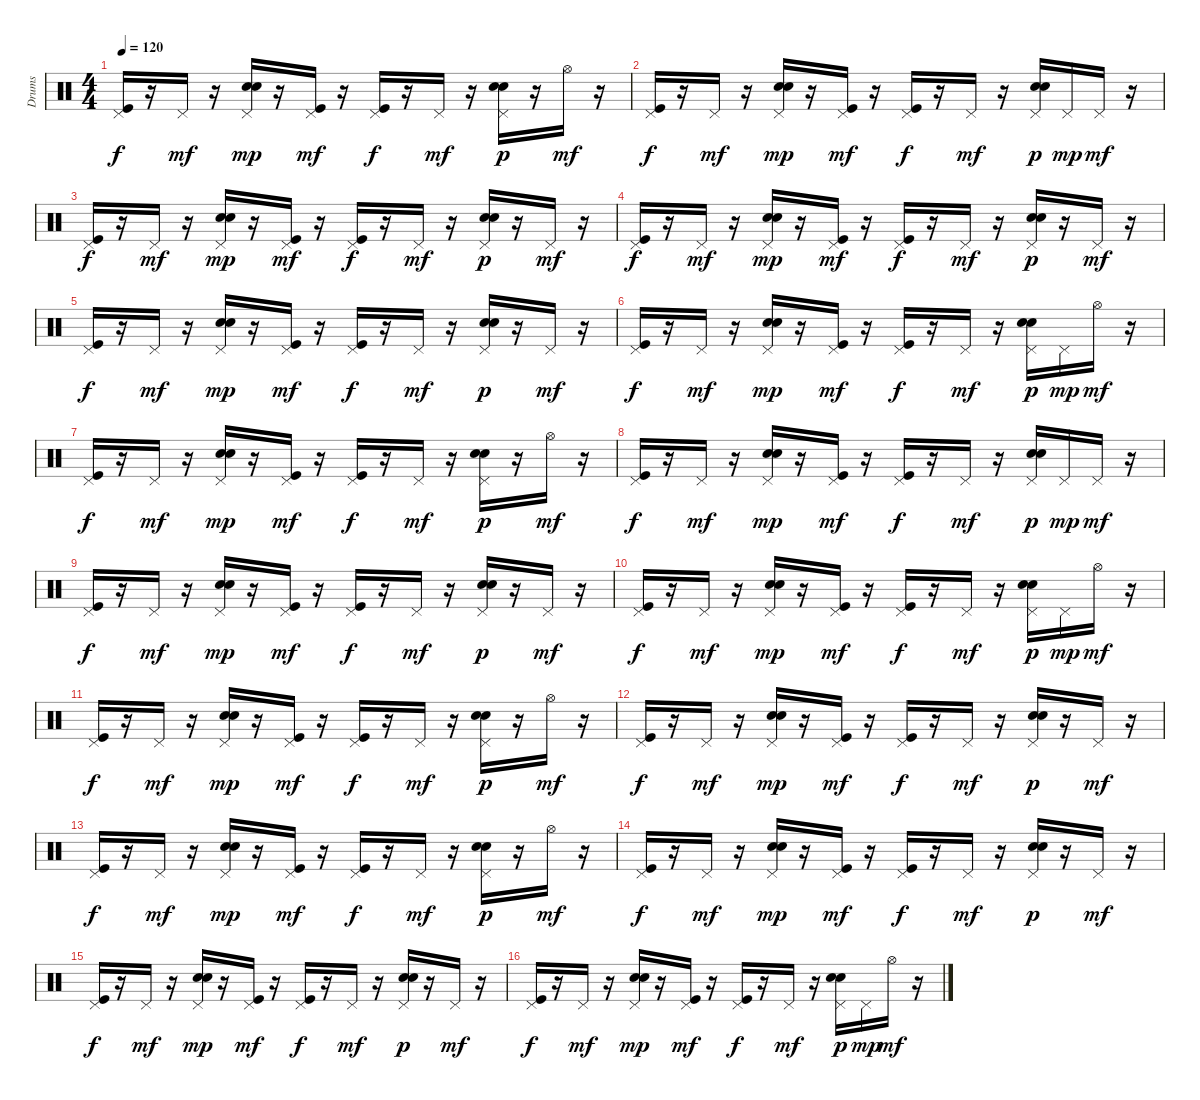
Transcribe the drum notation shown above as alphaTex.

\track ("Drums   " "Drums   ") {instrument percussion}
\staff {score}
\articulation defaults
\ts (4 4)
\tempo 120
\clef neutral
\ks c
("Kick (hit)" "Pedal Hi-Hat (hit)").16{dy f} r.16 "Pedal Hi-Hat (hit)".16{dy mf} r.16 ("Electric Snare (hit)" "Pedal Hi-Hat (hit)" "Hand Clap (hit)").16{dy mp} r.16 ("Kick (hit)" "Pedal Hi-Hat (hit)").16{dy mf} r.16 ("Kick (hit)" "Pedal Hi-Hat (hit)").16{dy f} r.16 "Pedal Hi-Hat (hit)".16{dy mf} r.16 ("Electric Snare (hit)" "Pedal Hi-Hat (hit)" "Hand Clap (hit)").16{dy p} r.16 "Hi-Hat (open)".16{dy mf} r.16 |
("Kick (hit)" "Pedal Hi-Hat (hit)").16{dy f} r.16 "Pedal Hi-Hat (hit)".16{dy mf} r.16 ("Electric Snare (hit)" "Pedal Hi-Hat (hit)" "Hand Clap (hit)").16{dy mp} r.16 ("Kick (hit)" "Pedal Hi-Hat (hit)").16{dy mf} r.16 ("Kick (hit)" "Pedal Hi-Hat (hit)").16{dy f} r.16 "Pedal Hi-Hat (hit)".16{dy mf} r.16 ("Electric Snare (hit)" "Pedal Hi-Hat (hit)" "Hand Clap (hit)").16{dy p} "Pedal Hi-Hat (hit)".16{dy mp} "Pedal Hi-Hat (hit)".16{dy mf} r.16 |
("Kick (hit)" "Pedal Hi-Hat (hit)").16{dy f} r.16 "Pedal Hi-Hat (hit)".16{dy mf} r.16 ("Electric Snare (hit)" "Pedal Hi-Hat (hit)" "Hand Clap (hit)").16{dy mp} r.16 ("Kick (hit)" "Pedal Hi-Hat (hit)").16{dy mf} r.16 ("Kick (hit)" "Pedal Hi-Hat (hit)").16{dy f} r.16 "Pedal Hi-Hat (hit)".16{dy mf} r.16 ("Electric Snare (hit)" "Pedal Hi-Hat (hit)" "Hand Clap (hit)").16{dy p} r.16 "Pedal Hi-Hat (hit)".16{dy mf} r.16 |
("Kick (hit)" "Pedal Hi-Hat (hit)").16{dy f} r.16 "Pedal Hi-Hat (hit)".16{dy mf} r.16 ("Electric Snare (hit)" "Pedal Hi-Hat (hit)" "Hand Clap (hit)").16{dy mp} r.16 ("Kick (hit)" "Pedal Hi-Hat (hit)").16{dy mf} r.16 ("Kick (hit)" "Pedal Hi-Hat (hit)").16{dy f} r.16 "Pedal Hi-Hat (hit)".16{dy mf} r.16 ("Electric Snare (hit)" "Pedal Hi-Hat (hit)" "Hand Clap (hit)").16{dy p} r.16 "Pedal Hi-Hat (hit)".16{dy mf} r.16 |
("Kick (hit)" "Pedal Hi-Hat (hit)").16{dy f} r.16 "Pedal Hi-Hat (hit)".16{dy mf} r.16 ("Electric Snare (hit)" "Pedal Hi-Hat (hit)" "Hand Clap (hit)").16{dy mp} r.16 ("Kick (hit)" "Pedal Hi-Hat (hit)").16{dy mf} r.16 ("Kick (hit)" "Pedal Hi-Hat (hit)").16{dy f} r.16 "Pedal Hi-Hat (hit)".16{dy mf} r.16 ("Electric Snare (hit)" "Pedal Hi-Hat (hit)" "Hand Clap (hit)").16{dy p} r.16 "Pedal Hi-Hat (hit)".16{dy mf} r.16 |
("Kick (hit)" "Pedal Hi-Hat (hit)").16{dy f} r.16 "Pedal Hi-Hat (hit)".16{dy mf} r.16 ("Electric Snare (hit)" "Pedal Hi-Hat (hit)" "Hand Clap (hit)").16{dy mp} r.16 ("Kick (hit)" "Pedal Hi-Hat (hit)").16{dy mf} r.16 ("Kick (hit)" "Pedal Hi-Hat (hit)").16{dy f} r.16 "Pedal Hi-Hat (hit)".16{dy mf} r.16 ("Electric Snare (hit)" "Pedal Hi-Hat (hit)" "Hand Clap (hit)").16{dy p} "Pedal Hi-Hat (hit)".16{dy mp} "Hi-Hat (open)".16{dy mf} r.16 |
("Kick (hit)" "Pedal Hi-Hat (hit)").16{dy f} r.16 "Pedal Hi-Hat (hit)".16{dy mf} r.16 ("Electric Snare (hit)" "Pedal Hi-Hat (hit)" "Hand Clap (hit)").16{dy mp} r.16 ("Kick (hit)" "Pedal Hi-Hat (hit)").16{dy mf} r.16 ("Kick (hit)" "Pedal Hi-Hat (hit)").16{dy f} r.16 "Pedal Hi-Hat (hit)".16{dy mf} r.16 ("Electric Snare (hit)" "Pedal Hi-Hat (hit)" "Hand Clap (hit)").16{dy p} r.16 "Hi-Hat (open)".16{dy mf} r.16 |
("Kick (hit)" "Pedal Hi-Hat (hit)").16{dy f} r.16 "Pedal Hi-Hat (hit)".16{dy mf} r.16 ("Electric Snare (hit)" "Pedal Hi-Hat (hit)" "Hand Clap (hit)").16{dy mp} r.16 ("Kick (hit)" "Pedal Hi-Hat (hit)").16{dy mf} r.16 ("Kick (hit)" "Pedal Hi-Hat (hit)").16{dy f} r.16 "Pedal Hi-Hat (hit)".16{dy mf} r.16 ("Electric Snare (hit)" "Pedal Hi-Hat (hit)" "Hand Clap (hit)").16{dy p} "Pedal Hi-Hat (hit)".16{dy mp} "Pedal Hi-Hat (hit)".16{dy mf} r.16 |
("Kick (hit)" "Pedal Hi-Hat (hit)").16{dy f} r.16 "Pedal Hi-Hat (hit)".16{dy mf} r.16 ("Electric Snare (hit)" "Pedal Hi-Hat (hit)" "Hand Clap (hit)").16{dy mp} r.16 ("Kick (hit)" "Pedal Hi-Hat (hit)").16{dy mf} r.16 ("Kick (hit)" "Pedal Hi-Hat (hit)").16{dy f} r.16 "Pedal Hi-Hat (hit)".16{dy mf} r.16 ("Electric Snare (hit)" "Pedal Hi-Hat (hit)" "Hand Clap (hit)").16{dy p} r.16 "Pedal Hi-Hat (hit)".16{dy mf} r.16 |
("Kick (hit)" "Pedal Hi-Hat (hit)").16{dy f} r.16 "Pedal Hi-Hat (hit)".16{dy mf} r.16 ("Electric Snare (hit)" "Pedal Hi-Hat (hit)" "Hand Clap (hit)").16{dy mp} r.16 ("Kick (hit)" "Pedal Hi-Hat (hit)").16{dy mf} r.16 ("Kick (hit)" "Pedal Hi-Hat (hit)").16{dy f} r.16 "Pedal Hi-Hat (hit)".16{dy mf} r.16 ("Electric Snare (hit)" "Pedal Hi-Hat (hit)" "Hand Clap (hit)").16{dy p} "Pedal Hi-Hat (hit)".16{dy mp} "Hi-Hat (open)".16{dy mf} r.16 |
("Kick (hit)" "Pedal Hi-Hat (hit)").16{dy f} r.16 "Pedal Hi-Hat (hit)".16{dy mf} r.16 ("Electric Snare (hit)" "Pedal Hi-Hat (hit)" "Hand Clap (hit)").16{dy mp} r.16 ("Kick (hit)" "Pedal Hi-Hat (hit)").16{dy mf} r.16 ("Kick (hit)" "Pedal Hi-Hat (hit)").16{dy f} r.16 "Pedal Hi-Hat (hit)".16{dy mf} r.16 ("Electric Snare (hit)" "Pedal Hi-Hat (hit)" "Hand Clap (hit)").16{dy p} r.16 "Hi-Hat (open)".16{dy mf} r.16 |
("Kick (hit)" "Pedal Hi-Hat (hit)").16{dy f} r.16 "Pedal Hi-Hat (hit)".16{dy mf} r.16 ("Electric Snare (hit)" "Pedal Hi-Hat (hit)" "Hand Clap (hit)").16{dy mp} r.16 ("Kick (hit)" "Pedal Hi-Hat (hit)").16{dy mf} r.16 ("Kick (hit)" "Pedal Hi-Hat (hit)").16{dy f} r.16 "Pedal Hi-Hat (hit)".16{dy mf} r.16 ("Electric Snare (hit)" "Pedal Hi-Hat (hit)" "Hand Clap (hit)").16{dy p} r.16 "Pedal Hi-Hat (hit)".16{dy mf} r.16 |
("Kick (hit)" "Pedal Hi-Hat (hit)").16{dy f} r.16 "Pedal Hi-Hat (hit)".16{dy mf} r.16 ("Electric Snare (hit)" "Pedal Hi-Hat (hit)" "Hand Clap (hit)").16{dy mp} r.16 ("Kick (hit)" "Pedal Hi-Hat (hit)").16{dy mf} r.16 ("Kick (hit)" "Pedal Hi-Hat (hit)").16{dy f} r.16 "Pedal Hi-Hat (hit)".16{dy mf} r.16 ("Electric Snare (hit)" "Pedal Hi-Hat (hit)" "Hand Clap (hit)").16{dy p} r.16 "Hi-Hat (open)".16{dy mf} r.16 |
("Kick (hit)" "Pedal Hi-Hat (hit)").16{dy f} r.16 "Pedal Hi-Hat (hit)".16{dy mf} r.16 ("Electric Snare (hit)" "Pedal Hi-Hat (hit)" "Hand Clap (hit)").16{dy mp} r.16 ("Kick (hit)" "Pedal Hi-Hat (hit)").16{dy mf} r.16 ("Kick (hit)" "Pedal Hi-Hat (hit)").16{dy f} r.16 "Pedal Hi-Hat (hit)".16{dy mf} r.16 ("Electric Snare (hit)" "Pedal Hi-Hat (hit)" "Hand Clap (hit)").16{dy p} r.16 "Pedal Hi-Hat (hit)".16{dy mf} r.16 |
("Kick (hit)" "Pedal Hi-Hat (hit)").16{dy f} r.16 "Pedal Hi-Hat (hit)".16{dy mf} r.16 ("Electric Snare (hit)" "Pedal Hi-Hat (hit)" "Hand Clap (hit)").16{dy mp} r.16 ("Kick (hit)" "Pedal Hi-Hat (hit)").16{dy mf} r.16 ("Kick (hit)" "Pedal Hi-Hat (hit)").16{dy f} r.16 "Pedal Hi-Hat (hit)".16{dy mf} r.16 ("Electric Snare (hit)" "Pedal Hi-Hat (hit)" "Hand Clap (hit)").16{dy p} r.16 "Pedal Hi-Hat (hit)".16{dy mf} r.16 |
("Kick (hit)" "Pedal Hi-Hat (hit)").16{dy f} r.16 "Pedal Hi-Hat (hit)".16{dy mf} r.16 ("Electric Snare (hit)" "Pedal Hi-Hat (hit)" "Hand Clap (hit)").16{dy mp} r.16 ("Kick (hit)" "Pedal Hi-Hat (hit)").16{dy mf} r.16 ("Kick (hit)" "Pedal Hi-Hat (hit)").16{dy f} r.16 "Pedal Hi-Hat (hit)".16{dy mf} r.16 ("Electric Snare (hit)" "Pedal Hi-Hat (hit)" "Hand Clap (hit)").16{dy p} "Pedal Hi-Hat (hit)".16{dy mp} "Hi-Hat (open)".16{dy mf} r.16
